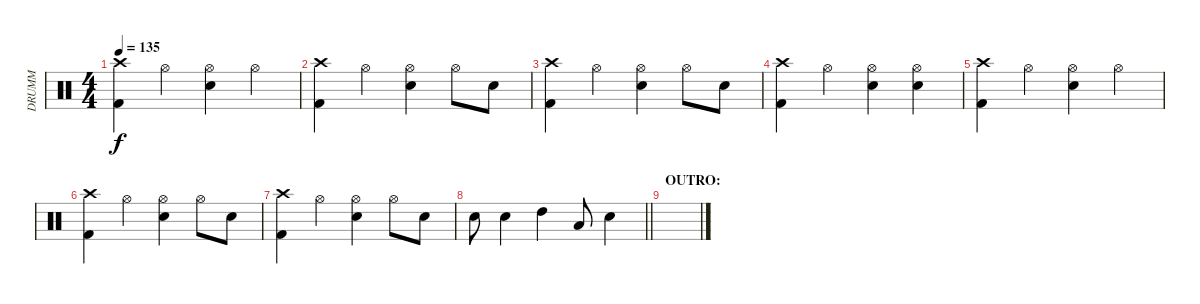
\track ("DRUMM" "DRUMM") {instrument percussion}
\staff {score}
\articulation defaults
\ts (4 4)
\tempo 135
\clef neutral
\ks c
("Crash high (hit)" "Kick (hit) 2").4{dy f} "Hi-Hat (open)".4 ("Hi-Hat (open)" "Electric Snare (hit)").4 "Hi-Hat (open)".4 |
("Crash high (hit)" "Kick (hit) 2").4 "Hi-Hat (open)".4 ("Hi-Hat (open)" "Electric Snare (hit)").4 "Hi-Hat (open)".8 "Electric Snare (hit)".8 |
("Crash high (hit)" "Kick (hit) 2").4 "Hi-Hat (open)".4 ("Hi-Hat (open)" "Electric Snare (hit)").4 "Hi-Hat (open)".8 "Electric Snare (hit)".8 |
("Crash high (hit)" "Kick (hit) 2").4 "Hi-Hat (open)".4 ("Hi-Hat (open)" "Electric Snare (hit)").4 ("Electric Snare (hit)" "Hi-Hat (open)").4 |
("Crash high (hit)" "Kick (hit) 2").4 "Hi-Hat (open)".4 ("Hi-Hat (open)" "Electric Snare (hit)").4 "Hi-Hat (open)".4 |
("Crash high (hit)" "Kick (hit) 2").4 "Hi-Hat (open)".4 ("Hi-Hat (open)" "Electric Snare (hit)").4 "Hi-Hat (open)".8 "Electric Snare (hit)".8 |
("Crash high (hit)" "Kick (hit) 2").4 "Hi-Hat (open)".4 ("Hi-Hat (open)" "Electric Snare (hit)").4 "Hi-Hat (open)".8 "Electric Snare (hit)".8 |
\barLineRight lightlight "Electric Snare (hit)".8 "Electric Snare (hit)".4 "High Tom (hit)".4 "Low Tom (hit)".8 "Electric Snare (hit)".4
|
\section ("" "OUTRO:")
